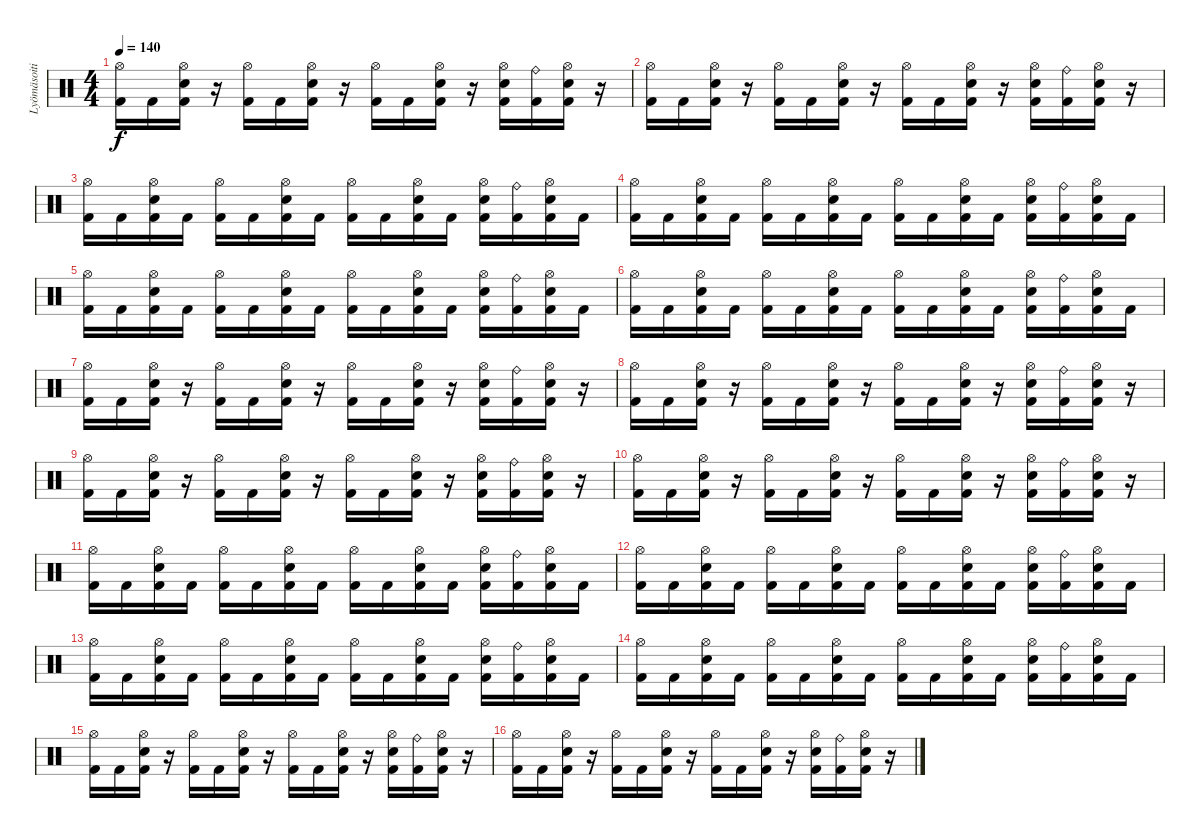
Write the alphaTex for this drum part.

\track ("Lyömäsoitin" "Lyömäsoiti") {instrument percussion}
\staff {score}
\articulation defaults
\ts (4 4)
\tempo 140
\clef neutral
\ks c
("Hi-Hat (open)" "Kick (hit) 2").16{dy f} "Kick (hit) 2".16 ("Hi-Hat (open)" "Electric Snare (hit)" "Kick (hit) 2").16 r.16 ("Hi-Hat (open)" "Kick (hit) 2").16 "Kick (hit) 2".16 ("Hi-Hat (open)" "Electric Snare (hit)" "Kick (hit) 2").16 r.16 ("Hi-Hat (open)" "Kick (hit) 2").16 "Kick (hit) 2".16 ("Hi-Hat (open)" "Electric Snare (hit)" "Kick (hit) 2").16 r.16 ("Hi-Hat (open)" "Electric Snare (hit)" "Kick (hit) 2").16 ("Ride (bell)" "Kick (hit) 2").16 ("Hi-Hat (open)" "Electric Snare (hit)" "Kick (hit) 2").16 r.16 |
("Hi-Hat (open)" "Kick (hit) 2").16 "Kick (hit) 2".16 ("Hi-Hat (open)" "Electric Snare (hit)" "Kick (hit) 2").16 r.16 ("Hi-Hat (open)" "Kick (hit) 2").16 "Kick (hit) 2".16 ("Hi-Hat (open)" "Electric Snare (hit)" "Kick (hit) 2").16 r.16 ("Hi-Hat (open)" "Kick (hit) 2").16 "Kick (hit) 2".16 ("Hi-Hat (open)" "Electric Snare (hit)" "Kick (hit) 2").16 r.16 ("Hi-Hat (open)" "Electric Snare (hit)" "Kick (hit) 2").16 ("Ride (bell)" "Kick (hit) 2").16 ("Hi-Hat (open)" "Electric Snare (hit)" "Kick (hit) 2").16 r.16 |
("Hi-Hat (open)" "Kick (hit) 2").16 "Kick (hit) 2".16 ("Hi-Hat (open)" "Electric Snare (hit)" "Kick (hit) 2").16 "Kick (hit) 2".16 ("Hi-Hat (open)" "Kick (hit) 2").16 "Kick (hit) 2".16 ("Hi-Hat (open)" "Electric Snare (hit)" "Kick (hit) 2").16 "Kick (hit) 2".16 ("Hi-Hat (open)" "Kick (hit) 2").16 "Kick (hit) 2".16 ("Hi-Hat (open)" "Electric Snare (hit)" "Kick (hit) 2").16 "Kick (hit) 2".16 ("Hi-Hat (open)" "Electric Snare (hit)" "Kick (hit) 2").16 ("Ride (bell)" "Kick (hit) 2").16 ("Hi-Hat (open)" "Electric Snare (hit)" "Kick (hit) 2").16 "Kick (hit) 2".16 |
("Hi-Hat (open)" "Kick (hit) 2").16 "Kick (hit) 2".16 ("Hi-Hat (open)" "Electric Snare (hit)" "Kick (hit) 2").16 "Kick (hit) 2".16 ("Hi-Hat (open)" "Kick (hit) 2").16 "Kick (hit) 2".16 ("Hi-Hat (open)" "Electric Snare (hit)" "Kick (hit) 2").16 "Kick (hit) 2".16 ("Hi-Hat (open)" "Kick (hit) 2").16 "Kick (hit) 2".16 ("Hi-Hat (open)" "Electric Snare (hit)" "Kick (hit) 2").16 "Kick (hit) 2".16 ("Hi-Hat (open)" "Electric Snare (hit)" "Kick (hit) 2").16 ("Ride (bell)" "Kick (hit) 2").16 ("Hi-Hat (open)" "Electric Snare (hit)" "Kick (hit) 2").16 "Kick (hit) 2".16 |
("Hi-Hat (open)" "Kick (hit) 2").16 "Kick (hit) 2".16 ("Hi-Hat (open)" "Electric Snare (hit)" "Kick (hit) 2").16 "Kick (hit) 2".16 ("Hi-Hat (open)" "Kick (hit) 2").16 "Kick (hit) 2".16 ("Hi-Hat (open)" "Electric Snare (hit)" "Kick (hit) 2").16 "Kick (hit) 2".16 ("Hi-Hat (open)" "Kick (hit) 2").16 "Kick (hit) 2".16 ("Hi-Hat (open)" "Electric Snare (hit)" "Kick (hit) 2").16 "Kick (hit) 2".16 ("Hi-Hat (open)" "Electric Snare (hit)" "Kick (hit) 2").16 ("Ride (bell)" "Kick (hit) 2").16 ("Hi-Hat (open)" "Electric Snare (hit)" "Kick (hit) 2").16 "Kick (hit) 2".16 |
("Hi-Hat (open)" "Kick (hit) 2").16 "Kick (hit) 2".16 ("Hi-Hat (open)" "Electric Snare (hit)" "Kick (hit) 2").16 "Kick (hit) 2".16 ("Hi-Hat (open)" "Kick (hit) 2").16 "Kick (hit) 2".16 ("Hi-Hat (open)" "Electric Snare (hit)" "Kick (hit) 2").16 "Kick (hit) 2".16 ("Hi-Hat (open)" "Kick (hit) 2").16 "Kick (hit) 2".16 ("Hi-Hat (open)" "Electric Snare (hit)" "Kick (hit) 2").16 "Kick (hit) 2".16 ("Hi-Hat (open)" "Electric Snare (hit)" "Kick (hit) 2").16 ("Ride (bell)" "Kick (hit) 2").16 ("Hi-Hat (open)" "Electric Snare (hit)" "Kick (hit) 2").16 "Kick (hit) 2".16 |
("Hi-Hat (open)" "Kick (hit) 2").16 "Kick (hit) 2".16 ("Hi-Hat (open)" "Electric Snare (hit)" "Kick (hit) 2").16 r.16 ("Hi-Hat (open)" "Kick (hit) 2").16 "Kick (hit) 2".16 ("Hi-Hat (open)" "Electric Snare (hit)" "Kick (hit) 2").16 r.16 ("Hi-Hat (open)" "Kick (hit) 2").16 "Kick (hit) 2".16 ("Hi-Hat (open)" "Electric Snare (hit)" "Kick (hit) 2").16 r.16 ("Hi-Hat (open)" "Electric Snare (hit)" "Kick (hit) 2").16 ("Ride (bell)" "Kick (hit) 2").16 ("Hi-Hat (open)" "Electric Snare (hit)" "Kick (hit) 2").16 r.16 |
("Hi-Hat (open)" "Kick (hit) 2").16 "Kick (hit) 2".16 ("Hi-Hat (open)" "Electric Snare (hit)" "Kick (hit) 2").16 r.16 ("Hi-Hat (open)" "Kick (hit) 2").16 "Kick (hit) 2".16 ("Hi-Hat (open)" "Electric Snare (hit)" "Kick (hit) 2").16 r.16 ("Hi-Hat (open)" "Kick (hit) 2").16 "Kick (hit) 2".16 ("Hi-Hat (open)" "Electric Snare (hit)" "Kick (hit) 2").16 r.16 ("Hi-Hat (open)" "Electric Snare (hit)" "Kick (hit) 2").16 ("Ride (bell)" "Kick (hit) 2").16 ("Hi-Hat (open)" "Electric Snare (hit)" "Kick (hit) 2").16 r.16 |
("Hi-Hat (open)" "Kick (hit) 2").16 "Kick (hit) 2".16 ("Hi-Hat (open)" "Electric Snare (hit)" "Kick (hit) 2").16 r.16 ("Hi-Hat (open)" "Kick (hit) 2").16 "Kick (hit) 2".16 ("Hi-Hat (open)" "Electric Snare (hit)" "Kick (hit) 2").16 r.16 ("Hi-Hat (open)" "Kick (hit) 2").16 "Kick (hit) 2".16 ("Hi-Hat (open)" "Electric Snare (hit)" "Kick (hit) 2").16 r.16 ("Hi-Hat (open)" "Electric Snare (hit)" "Kick (hit) 2").16 ("Ride (bell)" "Kick (hit) 2").16 ("Hi-Hat (open)" "Electric Snare (hit)" "Kick (hit) 2").16 r.16 |
("Hi-Hat (open)" "Kick (hit) 2").16 "Kick (hit) 2".16 ("Hi-Hat (open)" "Electric Snare (hit)" "Kick (hit) 2").16 r.16 ("Hi-Hat (open)" "Kick (hit) 2").16 "Kick (hit) 2".16 ("Hi-Hat (open)" "Electric Snare (hit)" "Kick (hit) 2").16 r.16 ("Hi-Hat (open)" "Kick (hit) 2").16 "Kick (hit) 2".16 ("Hi-Hat (open)" "Electric Snare (hit)" "Kick (hit) 2").16 r.16 ("Hi-Hat (open)" "Electric Snare (hit)" "Kick (hit) 2").16 ("Ride (bell)" "Kick (hit) 2").16 ("Hi-Hat (open)" "Electric Snare (hit)" "Kick (hit) 2").16 r.16 |
("Hi-Hat (open)" "Kick (hit) 2").16 "Kick (hit) 2".16 ("Hi-Hat (open)" "Electric Snare (hit)" "Kick (hit) 2").16 "Kick (hit) 2".16 ("Hi-Hat (open)" "Kick (hit) 2").16 "Kick (hit) 2".16 ("Hi-Hat (open)" "Electric Snare (hit)" "Kick (hit) 2").16 "Kick (hit) 2".16 ("Hi-Hat (open)" "Kick (hit) 2").16 "Kick (hit) 2".16 ("Hi-Hat (open)" "Electric Snare (hit)" "Kick (hit) 2").16 "Kick (hit) 2".16 ("Hi-Hat (open)" "Electric Snare (hit)" "Kick (hit) 2").16 ("Ride (bell)" "Kick (hit) 2").16 ("Hi-Hat (open)" "Electric Snare (hit)" "Kick (hit) 2").16 "Kick (hit) 2".16 |
("Hi-Hat (open)" "Kick (hit) 2").16 "Kick (hit) 2".16 ("Hi-Hat (open)" "Electric Snare (hit)" "Kick (hit) 2").16 "Kick (hit) 2".16 ("Hi-Hat (open)" "Kick (hit) 2").16 "Kick (hit) 2".16 ("Hi-Hat (open)" "Electric Snare (hit)" "Kick (hit) 2").16 "Kick (hit) 2".16 ("Hi-Hat (open)" "Kick (hit) 2").16 "Kick (hit) 2".16 ("Hi-Hat (open)" "Electric Snare (hit)" "Kick (hit) 2").16 "Kick (hit) 2".16 ("Hi-Hat (open)" "Electric Snare (hit)" "Kick (hit) 2").16 ("Ride (bell)" "Kick (hit) 2").16 ("Hi-Hat (open)" "Electric Snare (hit)" "Kick (hit) 2").16 "Kick (hit) 2".16 |
("Hi-Hat (open)" "Kick (hit) 2").16 "Kick (hit) 2".16 ("Hi-Hat (open)" "Electric Snare (hit)" "Kick (hit) 2").16 "Kick (hit) 2".16 ("Hi-Hat (open)" "Kick (hit) 2").16 "Kick (hit) 2".16 ("Hi-Hat (open)" "Electric Snare (hit)" "Kick (hit) 2").16 "Kick (hit) 2".16 ("Hi-Hat (open)" "Kick (hit) 2").16 "Kick (hit) 2".16 ("Hi-Hat (open)" "Electric Snare (hit)" "Kick (hit) 2").16 "Kick (hit) 2".16 ("Hi-Hat (open)" "Electric Snare (hit)" "Kick (hit) 2").16 ("Ride (bell)" "Kick (hit) 2").16 ("Hi-Hat (open)" "Electric Snare (hit)" "Kick (hit) 2").16 "Kick (hit) 2".16 |
("Hi-Hat (open)" "Kick (hit) 2").16 "Kick (hit) 2".16 ("Hi-Hat (open)" "Electric Snare (hit)" "Kick (hit) 2").16 "Kick (hit) 2".16 ("Hi-Hat (open)" "Kick (hit) 2").16 "Kick (hit) 2".16 ("Hi-Hat (open)" "Electric Snare (hit)" "Kick (hit) 2").16 "Kick (hit) 2".16 ("Hi-Hat (open)" "Kick (hit) 2").16 "Kick (hit) 2".16 ("Hi-Hat (open)" "Electric Snare (hit)" "Kick (hit) 2").16 "Kick (hit) 2".16 ("Hi-Hat (open)" "Electric Snare (hit)" "Kick (hit) 2").16 ("Ride (bell)" "Kick (hit) 2").16 ("Hi-Hat (open)" "Electric Snare (hit)" "Kick (hit) 2").16 "Kick (hit) 2".16 |
("Hi-Hat (open)" "Kick (hit) 2").16 "Kick (hit) 2".16 ("Hi-Hat (open)" "Electric Snare (hit)" "Kick (hit) 2").16 r.16 ("Hi-Hat (open)" "Kick (hit) 2").16 "Kick (hit) 2".16 ("Hi-Hat (open)" "Electric Snare (hit)" "Kick (hit) 2").16 r.16 ("Hi-Hat (open)" "Kick (hit) 2").16 "Kick (hit) 2".16 ("Hi-Hat (open)" "Electric Snare (hit)" "Kick (hit) 2").16 r.16 ("Hi-Hat (open)" "Electric Snare (hit)" "Kick (hit) 2").16 ("Ride (bell)" "Kick (hit) 2").16 ("Hi-Hat (open)" "Electric Snare (hit)" "Kick (hit) 2").16 r.16 |
("Hi-Hat (open)" "Kick (hit) 2").16 "Kick (hit) 2".16 ("Hi-Hat (open)" "Electric Snare (hit)" "Kick (hit) 2").16 r.16 ("Hi-Hat (open)" "Kick (hit) 2").16 "Kick (hit) 2".16 ("Hi-Hat (open)" "Electric Snare (hit)" "Kick (hit) 2").16 r.16 ("Hi-Hat (open)" "Kick (hit) 2").16 "Kick (hit) 2".16 ("Hi-Hat (open)" "Electric Snare (hit)" "Kick (hit) 2").16 r.16 ("Hi-Hat (open)" "Electric Snare (hit)" "Kick (hit) 2").16 ("Ride (bell)" "Kick (hit) 2").16 ("Hi-Hat (open)" "Electric Snare (hit)" "Kick (hit) 2").16 r.16
